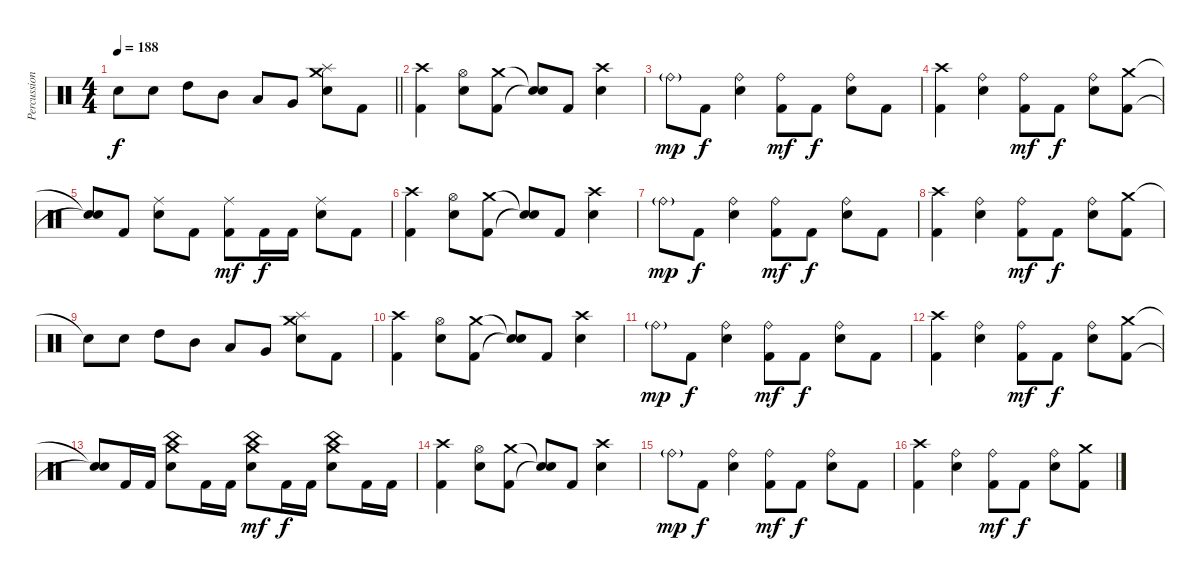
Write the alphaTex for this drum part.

\track ("Percussion" "Percussion") {instrument percussion}
\staff {score}
\articulation defaults
\ts (4 4)
\tempo 188
\clef neutral
\barLineRight lightlight
\ks c "Snare (hit)"{t}.8{dy f} "Electric Snare (hit)".8 "High Tom (hit)".8 "Mid Tom (hit)".8 "Low Tom (hit)".8 "Very Low Tom (hit)".8
("Splash (hit)" "Crash medium (hit)" "Electric Snare (hit)").8 "Kick (hit) 2".8 |
("Crash high (hit)" "Kick (hit) 2").4 ("Hi-Hat (open)" "Electric Snare (hit)").8 ("Crash medium (hit)" "Kick (hit) 2").8 ("Snare (hit)"{t} "Snare (hit)"{t}).8 "Kick (hit) 2".8 ("Crash high (hit)" "Electric Snare (hit)").4 |
"Ride (bell)"{g}.8{dy mp} "Kick (hit) 2".8{dy f} ("Ride (bell)" "Electric Snare (hit)").4 ("Ride (bell)" "Kick (hit) 2").8{dy mf} "Kick (hit) 2".8{dy f} ("Ride (bell)" "Electric Snare (hit)").8 "Kick (hit) 2".8 |
("Crash high (hit)" "Kick (hit) 2").4 ("Ride (bell)" "Electric Snare (hit)").4 ("Ride (bell)" "Kick (hit) 2").8{dy mf} "Kick (hit) 2".8{dy f} ("Ride (bell)" "Electric Snare (hit)").8 ("Crash medium (hit)" "Kick (hit) 2").8 |
("Snare (hit)"{t} "Snare (hit)"{t}).8 "Kick (hit) 2".8 ("Ride (middle)" "Electric Snare (hit)").8 "Kick (hit) 2".8 ("Ride (middle)" "Kick (hit) 2").8{dy mf} "Kick (hit) 2".16{dy f} "Kick (hit) 2".16 ("Ride (middle)" "Electric Snare (hit)").8 "Kick (hit) 2".8 |
("Crash high (hit)" "Kick (hit) 2").4 ("Hi-Hat (open)" "Electric Snare (hit)").8 ("Crash medium (hit)" "Kick (hit) 2").8 ("Snare (hit)"{t} "Snare (hit)"{t}).8 "Kick (hit) 2".8 ("Crash high (hit)" "Electric Snare (hit)").4 |
"Ride (bell)"{g}.8{dy mp} "Kick (hit) 2".8{dy f} ("Ride (bell)" "Electric Snare (hit)").4 ("Ride (bell)" "Kick (hit) 2").8{dy mf} "Kick (hit) 2".8{dy f} ("Ride (bell)" "Electric Snare (hit)").8 "Kick (hit) 2".8 |
("Crash high (hit)" "Kick (hit) 2").4 ("Ride (bell)" "Electric Snare (hit)").4 ("Ride (bell)" "Kick (hit) 2").8{dy mf} "Kick (hit) 2".8{dy f} ("Ride (bell)" "Electric Snare (hit)").8 ("Crash medium (hit)" "Kick (hit) 2").8 |
"Snare (hit)"{t}.8 "Electric Snare (hit)".8 "High Tom (hit)".8 "Mid Tom (hit)".8 "Low Tom (hit)".8 "Very Low Tom (hit)".8 ("Splash (hit)" "Crash medium (hit)" "Electric Snare (hit)").8 "Kick (hit) 2".8 |
("Crash high (hit)" "Kick (hit) 2").4 ("Hi-Hat (open)" "Electric Snare (hit)").8 ("Crash medium (hit)" "Kick (hit) 2").8 ("Snare (hit)"{t} "Snare (hit)"{t}).8 "Kick (hit) 2".8 ("Crash high (hit)" "Electric Snare (hit)").4 |
"Ride (bell)"{g}.8{dy mp} "Kick (hit) 2".8{dy f} ("Ride (bell)" "Electric Snare (hit)").4 ("Ride (bell)" "Kick (hit) 2").8{dy mf} "Kick (hit) 2".8{dy f} ("Ride (bell)" "Electric Snare (hit)").8 "Kick (hit) 2".8 |
("Crash high (hit)" "Kick (hit) 2").4 ("Ride (bell)" "Electric Snare (hit)").4 ("Ride (bell)" "Kick (hit) 2").8{dy mf} "Kick (hit) 2".8{dy f} ("Ride (bell)" "Electric Snare (hit)").8 ("Crash medium (hit)" "Kick (hit) 2").8 |
("Snare (hit)"{t} "Snare (hit)"{t}).8 "Kick (hit) 2".16 "Kick (hit) 2".16 ("China (hit)" "Crash medium (hit)" "Electric Snare (hit)").8 "Kick (hit) 2".16 "Kick (hit) 2".16 ("China (hit)" "Crash medium (hit)" "Electric Snare (hit)").8{dy mf} "Kick (hit) 2".16{dy f} "Kick (hit) 2".16 ("China (hit)" "Crash medium (hit)" "Electric Snare (hit)").8 "Kick (hit) 2".16 "Kick (hit) 2".16 |
("Crash high (hit)" "Kick (hit) 2").4 ("Hi-Hat (open)" "Electric Snare (hit)").8 ("Crash medium (hit)" "Kick (hit) 2").8 ("Snare (hit)"{t} "Snare (hit)"{t}).8 "Kick (hit) 2".8 ("Crash high (hit)" "Electric Snare (hit)").4 |
"Ride (bell)"{g}.8{dy mp} "Kick (hit) 2".8{dy f} ("Ride (bell)" "Electric Snare (hit)").4 ("Ride (bell)" "Kick (hit) 2").8{dy mf} "Kick (hit) 2".8{dy f} ("Ride (bell)" "Electric Snare (hit)").8 "Kick (hit) 2".8 |
("Crash high (hit)" "Kick (hit) 2").4 ("Ride (bell)" "Electric Snare (hit)").4 ("Ride (bell)" "Kick (hit) 2").8{dy mf} "Kick (hit) 2".8{dy f} ("Ride (bell)" "Electric Snare (hit)").8 ("Crash medium (hit)" "Kick (hit) 2").8
